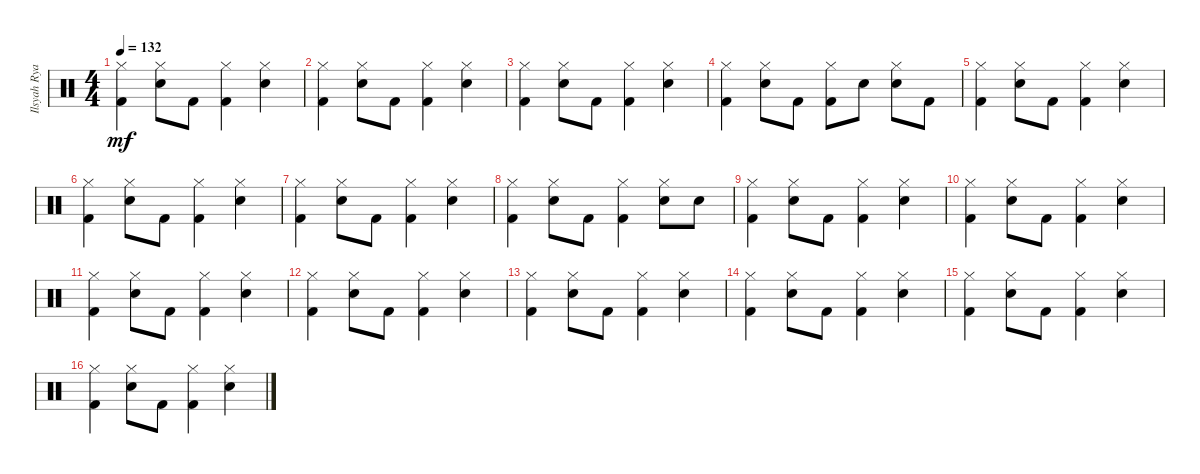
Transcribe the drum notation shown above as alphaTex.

\track ("Ilsyah Ryan Reza (drum)" "Ilsyah Rya") {instrument percussion}
\staff {score}
\articulation defaults
\ts (4 4)
\tempo 132
\clef neutral
\ks c
("Hi-Hat (closed)" "Kick (hit) 2").4{dy mf} ("Hi-Hat (closed)" "Electric Snare (hit)").8 "Kick (hit) 2".8 ("Hi-Hat (closed)" "Kick (hit) 2").4 ("Hi-Hat (closed)" "Electric Snare (hit)").4 |
("Hi-Hat (closed)" "Kick (hit) 2").4 ("Hi-Hat (closed)" "Electric Snare (hit)").8 "Kick (hit) 2".8 ("Hi-Hat (closed)" "Kick (hit) 2").4 ("Hi-Hat (closed)" "Electric Snare (hit)").4 |
("Hi-Hat (closed)" "Kick (hit) 2").4 ("Hi-Hat (closed)" "Electric Snare (hit)").8 "Kick (hit) 2".8 ("Hi-Hat (closed)" "Kick (hit) 2").4 ("Hi-Hat (closed)" "Electric Snare (hit)").4 |
("Hi-Hat (closed)" "Kick (hit) 2").4 ("Hi-Hat (closed)" "Electric Snare (hit)").8 "Kick (hit) 2".8 ("Hi-Hat (closed)" "Kick (hit) 2").8 "Electric Snare (hit)".8 ("Hi-Hat (closed)" "Electric Snare (hit)").8 "Kick (hit) 2".8 |
("Hi-Hat (closed)" "Kick (hit) 2").4 ("Hi-Hat (closed)" "Electric Snare (hit)").8 "Kick (hit) 2".8 ("Hi-Hat (closed)" "Kick (hit) 2").4 ("Hi-Hat (closed)" "Electric Snare (hit)").4 |
("Hi-Hat (closed)" "Kick (hit) 2").4 ("Hi-Hat (closed)" "Electric Snare (hit)").8 "Kick (hit) 2".8 ("Hi-Hat (closed)" "Kick (hit) 2").4 ("Hi-Hat (closed)" "Electric Snare (hit)").4 |
("Hi-Hat (closed)" "Kick (hit) 2").4 ("Hi-Hat (closed)" "Electric Snare (hit)").8 "Kick (hit) 2".8 ("Hi-Hat (closed)" "Kick (hit) 2").4 ("Hi-Hat (closed)" "Electric Snare (hit)").4 |
("Hi-Hat (closed)" "Kick (hit) 2").4 ("Hi-Hat (closed)" "Electric Snare (hit)").8 "Kick (hit) 2".8 ("Hi-Hat (closed)" "Kick (hit) 2").4 ("Hi-Hat (closed)" "Electric Snare (hit)").8 "Electric Snare (hit)".8 |
("Hi-Hat (closed)" "Kick (hit) 2").4 ("Hi-Hat (closed)" "Electric Snare (hit)").8 "Kick (hit) 2".8 ("Hi-Hat (closed)" "Kick (hit) 2").4 ("Hi-Hat (closed)" "Electric Snare (hit)").4 |
("Hi-Hat (closed)" "Kick (hit) 2").4 ("Hi-Hat (closed)" "Electric Snare (hit)").8 "Kick (hit) 2".8 ("Hi-Hat (closed)" "Kick (hit) 2").4 ("Hi-Hat (closed)" "Electric Snare (hit)").4 |
("Hi-Hat (closed)" "Kick (hit) 2").4 ("Hi-Hat (closed)" "Electric Snare (hit)").8 "Kick (hit) 2".8 ("Hi-Hat (closed)" "Kick (hit) 2").4 ("Hi-Hat (closed)" "Electric Snare (hit)").4 |
("Hi-Hat (closed)" "Kick (hit) 2").4 ("Hi-Hat (closed)" "Electric Snare (hit)").8 "Kick (hit) 2".8 ("Hi-Hat (closed)" "Kick (hit) 2").4 ("Hi-Hat (closed)" "Electric Snare (hit)").4 |
("Hi-Hat (closed)" "Kick (hit) 2").4 ("Hi-Hat (closed)" "Electric Snare (hit)").8 "Kick (hit) 2".8 ("Hi-Hat (closed)" "Kick (hit) 2").4 ("Hi-Hat (closed)" "Electric Snare (hit)").4 |
("Hi-Hat (closed)" "Kick (hit) 2").4 ("Hi-Hat (closed)" "Electric Snare (hit)").8 "Kick (hit) 2".8 ("Hi-Hat (closed)" "Kick (hit) 2").4 ("Hi-Hat (closed)" "Electric Snare (hit)").4 |
("Hi-Hat (closed)" "Kick (hit) 2").4 ("Hi-Hat (closed)" "Electric Snare (hit)").8 "Kick (hit) 2".8 ("Hi-Hat (closed)" "Kick (hit) 2").4 ("Hi-Hat (closed)" "Electric Snare (hit)").4 |
("Hi-Hat (closed)" "Kick (hit) 2").4 ("Hi-Hat (closed)" "Electric Snare (hit)").8 "Kick (hit) 2".8 ("Hi-Hat (closed)" "Kick (hit) 2").4 ("Hi-Hat (closed)" "Electric Snare (hit)").4
